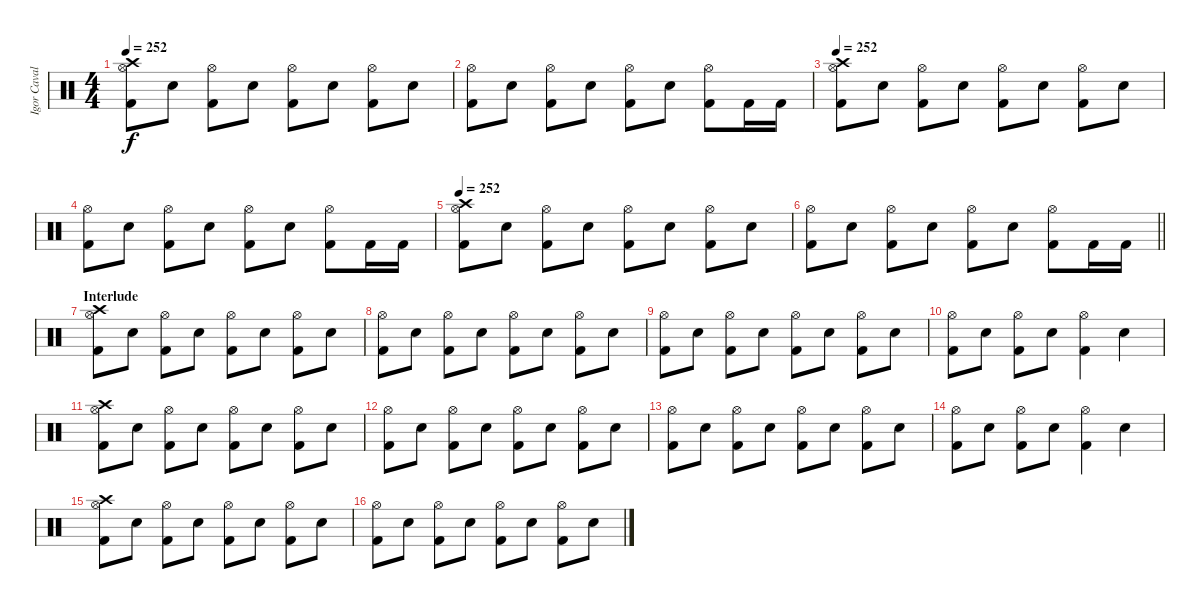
\track ("Igor Cavalera" "Igor Caval") {instrument percussion}
\staff {score}
\articulation defaults
\ts (4 4)
\tempo 252
\clef neutral
\ks c
("Crash high (hit)" "Hi-Hat (open)" "Kick (hit) 2").8{dy f} "Electric Snare (hit)".8 ("Hi-Hat (open)" "Kick (hit) 2").8 "Electric Snare (hit)".8 ("Hi-Hat (open)" "Kick (hit) 2").8 "Electric Snare (hit)".8 ("Hi-Hat (open)" "Kick (hit) 2").8 "Electric Snare (hit)".8 |
("Hi-Hat (open)" "Kick (hit) 2").8 "Electric Snare (hit)".8 ("Hi-Hat (open)" "Kick (hit) 2").8 "Electric Snare (hit)".8 ("Hi-Hat (open)" "Kick (hit) 2").8 "Electric Snare (hit)".8 ("Hi-Hat (open)" "Kick (hit) 2").8 "Kick (hit) 2".16 "Kick (hit) 2".16 |
\tempo 252
("Crash high (hit)" "Hi-Hat (open)" "Kick (hit) 2").8 "Electric Snare (hit)".8 ("Hi-Hat (open)" "Kick (hit) 2").8 "Electric Snare (hit)".8 ("Hi-Hat (open)" "Kick (hit) 2").8 "Electric Snare (hit)".8 ("Hi-Hat (open)" "Kick (hit) 2").8 "Electric Snare (hit)".8 |
("Hi-Hat (open)" "Kick (hit) 2").8 "Electric Snare (hit)".8 ("Hi-Hat (open)" "Kick (hit) 2").8 "Electric Snare (hit)".8 ("Hi-Hat (open)" "Kick (hit) 2").8 "Electric Snare (hit)".8 ("Hi-Hat (open)" "Kick (hit) 2").8 "Kick (hit) 2".16 "Kick (hit) 2".16 |
\tempo 252
("Crash high (hit)" "Hi-Hat (open)" "Kick (hit) 2").8 "Electric Snare (hit)".8 ("Hi-Hat (open)" "Kick (hit) 2").8 "Electric Snare (hit)".8 ("Hi-Hat (open)" "Kick (hit) 2").8 "Electric Snare (hit)".8 ("Hi-Hat (open)" "Kick (hit) 2").8 "Electric Snare (hit)".8 |
\barLineRight lightlight
("Hi-Hat (open)" "Kick (hit) 2").8 "Electric Snare (hit)".8 ("Hi-Hat (open)" "Kick (hit) 2").8 "Electric Snare (hit)".8 ("Hi-Hat (open)" "Kick (hit) 2").8 "Electric Snare (hit)".8 ("Hi-Hat (open)" "Kick (hit) 2").8 "Kick (hit) 2".16 "Kick (hit) 2".16 |
\section ("" "Interlude")
("Crash high (hit)" "Hi-Hat (open)" "Kick (hit) 2").8 "Electric Snare (hit)".8 ("Hi-Hat (open)" "Kick (hit) 2").8 "Electric Snare (hit)".8 ("Hi-Hat (open)" "Kick (hit) 2").8 "Electric Snare (hit)".8 ("Hi-Hat (open)" "Kick (hit) 2").8 "Electric Snare (hit)".8 |
("Hi-Hat (open)" "Kick (hit) 2").8 "Electric Snare (hit)".8 ("Hi-Hat (open)" "Kick (hit) 2").8 "Electric Snare (hit)".8 ("Hi-Hat (open)" "Kick (hit) 2").8 "Electric Snare (hit)".8 ("Hi-Hat (open)" "Kick (hit) 2").8 "Electric Snare (hit)".8 |
("Hi-Hat (open)" "Kick (hit) 2").8 "Electric Snare (hit)".8 ("Hi-Hat (open)" "Kick (hit) 2").8 "Electric Snare (hit)".8 ("Hi-Hat (open)" "Kick (hit) 2").8 "Electric Snare (hit)".8 ("Hi-Hat (open)" "Kick (hit) 2").8 "Electric Snare (hit)".8 |
("Hi-Hat (open)" "Kick (hit) 2").8 "Electric Snare (hit)".8 ("Hi-Hat (open)" "Kick (hit) 2").8 "Electric Snare (hit)".8 ("Hi-Hat (open)" "Kick (hit) 2").4 "Electric Snare (hit)".4 |
("Crash high (hit)" "Hi-Hat (open)" "Kick (hit) 2").8 "Electric Snare (hit)".8 ("Hi-Hat (open)" "Kick (hit) 2").8 "Electric Snare (hit)".8 ("Hi-Hat (open)" "Kick (hit) 2").8 "Electric Snare (hit)".8 ("Hi-Hat (open)" "Kick (hit) 2").8 "Electric Snare (hit)".8 |
("Hi-Hat (open)" "Kick (hit) 2").8 "Electric Snare (hit)".8 ("Hi-Hat (open)" "Kick (hit) 2").8 "Electric Snare (hit)".8 ("Hi-Hat (open)" "Kick (hit) 2").8 "Electric Snare (hit)".8 ("Hi-Hat (open)" "Kick (hit) 2").8 "Electric Snare (hit)".8 |
("Hi-Hat (open)" "Kick (hit) 2").8 "Electric Snare (hit)".8 ("Hi-Hat (open)" "Kick (hit) 2").8 "Electric Snare (hit)".8 ("Hi-Hat (open)" "Kick (hit) 2").8 "Electric Snare (hit)".8 ("Hi-Hat (open)" "Kick (hit) 2").8 "Electric Snare (hit)".8 |
("Hi-Hat (open)" "Kick (hit) 2").8 "Electric Snare (hit)".8 ("Hi-Hat (open)" "Kick (hit) 2").8 "Electric Snare (hit)".8 ("Hi-Hat (open)" "Kick (hit) 2").4 "Electric Snare (hit)".4 |
("Crash high (hit)" "Hi-Hat (open)" "Kick (hit) 2").8 "Electric Snare (hit)".8 ("Hi-Hat (open)" "Kick (hit) 2").8 "Electric Snare (hit)".8 ("Hi-Hat (open)" "Kick (hit) 2").8 "Electric Snare (hit)".8 ("Hi-Hat (open)" "Kick (hit) 2").8 "Electric Snare (hit)".8 |
("Hi-Hat (open)" "Kick (hit) 2").8 "Electric Snare (hit)".8 ("Hi-Hat (open)" "Kick (hit) 2").8 "Electric Snare (hit)".8 ("Hi-Hat (open)" "Kick (hit) 2").8 "Electric Snare (hit)".8 ("Hi-Hat (open)" "Kick (hit) 2").8 "Electric Snare (hit)".8
